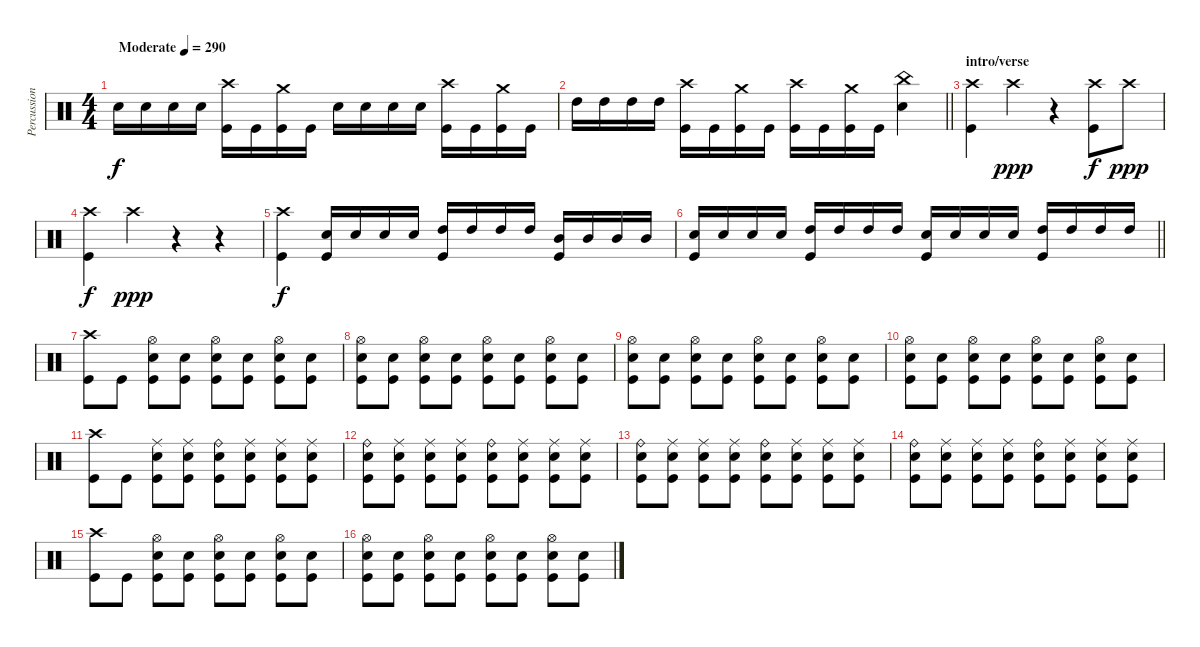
\track ("Percussion" "Percussion") {instrument percussion}
\staff {score}
\articulation defaults
\ts (4 4)
\tempo (290 "Moderate")
\clef neutral
\ks c "Electric Snare (hit)".16{dy f} "Electric Snare (hit)".16 "Electric Snare (hit)".16 "Electric Snare (hit)".16
("Crash high (hit)" "Kick (hit)").16 "Kick (hit)".16 ("Crash medium (hit)" "Kick (hit)").16 "Kick (hit)".16 "Electric Snare (hit)".16 "Electric Snare (hit)".16 "Electric Snare (hit)".16 "Electric Snare (hit)".16 ("Crash high (hit)" "Kick (hit)").16 "Kick (hit)".16 ("Crash medium (hit)" "Kick (hit)").16 "Kick (hit)".16 |
\barLineRight lightlight "High Tom (hit)".16 "High Tom (hit)".16 "High Tom (hit)".16 "High Tom (hit)".16
("Crash high (hit)" "Kick (hit)").16 "Kick (hit)".16 ("Crash medium (hit)" "Kick (hit)").16 "Kick (hit)".16 ("Crash high (hit)" "Kick (hit)").16 "Kick (hit)".16 ("Crash medium (hit)" "Kick (hit)").16 "Kick (hit)".16 ("China (hit)" "Electric Snare (hit)").4 |
\section ("" "intro/verse")
("Crash high (hit)" "Kick (hit)").4 "Crash high (hit)".4{dy ppp} r.4 ("Crash high (hit)" "Kick (hit)").8{dy f} "Crash high (hit)".8{dy ppp} |
("Crash high (hit)" "Kick (hit)").4{dy f} "Crash high (hit)".4{dy ppp} r.4 r.4 |
("Crash high (hit)" "Kick (hit)").4{dy f} ("Electric Snare (hit)" "Kick (hit)").16 "Electric Snare (hit)".16 "Electric Snare (hit)".16 "Electric Snare (hit)".16 ("High Tom (hit)" "Kick (hit)").16 "High Tom (hit)".16 "High Tom (hit)".16 "High Tom (hit)".16 ("Mid Tom (hit)" "Kick (hit)").16 "Mid Tom (hit)".16 "Mid Tom (hit)".16 "Mid Tom (hit)".16 |
\barLineRight lightlight
("Electric Snare (hit)" "Kick (hit)").16 "Electric Snare (hit)".16 "Electric Snare (hit)".16 "Electric Snare (hit)".16 ("High Tom (hit)" "Kick (hit)").16 "High Tom (hit)".16 "High Tom (hit)".16 "High Tom (hit)".16 ("Electric Snare (hit)" "Kick (hit)").16 "Electric Snare (hit)".16 "Electric Snare (hit)".16 "Electric Snare (hit)".16 ("High Tom (hit)" "Kick (hit)").16 "High Tom (hit)".16 "High Tom (hit)".16 "High Tom (hit)".16 |
("Crash high (hit)" "Kick (hit)").8 "Kick (hit)".8 ("Electric Snare (hit)" "Kick (hit)" "Hi-Hat (open)").8 ("Electric Snare (hit)" "Kick (hit)").8 ("Electric Snare (hit)" "Kick (hit)" "Hi-Hat (open)").8 ("Electric Snare (hit)" "Kick (hit)").8 ("Electric Snare (hit)" "Kick (hit)" "Hi-Hat (open)").8 ("Electric Snare (hit)" "Kick (hit)").8 |
("Electric Snare (hit)" "Kick (hit)" "Hi-Hat (open)").8 ("Electric Snare (hit)" "Kick (hit)").8 ("Electric Snare (hit)" "Kick (hit)" "Hi-Hat (open)").8 ("Electric Snare (hit)" "Kick (hit)").8 ("Electric Snare (hit)" "Kick (hit)" "Hi-Hat (open)").8 ("Electric Snare (hit)" "Kick (hit)").8 ("Electric Snare (hit)" "Kick (hit)" "Hi-Hat (open)").8 ("Electric Snare (hit)" "Kick (hit)").8 |
("Electric Snare (hit)" "Kick (hit)" "Hi-Hat (open)").8 ("Electric Snare (hit)" "Kick (hit)").8 ("Electric Snare (hit)" "Kick (hit)" "Hi-Hat (open)").8 ("Electric Snare (hit)" "Kick (hit)").8 ("Electric Snare (hit)" "Kick (hit)" "Hi-Hat (open)").8 ("Electric Snare (hit)" "Kick (hit)").8 ("Electric Snare (hit)" "Kick (hit)" "Hi-Hat (open)").8 ("Electric Snare (hit)" "Kick (hit)").8 |
("Electric Snare (hit)" "Kick (hit)" "Hi-Hat (open)").8 ("Electric Snare (hit)" "Kick (hit)").8 ("Electric Snare (hit)" "Kick (hit)" "Hi-Hat (open)").8 ("Electric Snare (hit)" "Kick (hit)").8 ("Electric Snare (hit)" "Kick (hit)" "Hi-Hat (open)").8 ("Electric Snare (hit)" "Kick (hit)").8 ("Electric Snare (hit)" "Kick (hit)" "Hi-Hat (open)").8 ("Electric Snare (hit)" "Kick (hit)").8 |
("Crash high (hit)" "Kick (hit)").8 "Kick (hit)".8 ("Electric Snare (hit)" "Kick (hit)" "Ride (middle)").8 ("Electric Snare (hit)" "Kick (hit)" "Ride (middle)").8 ("Electric Snare (hit)" "Kick (hit)" "Ride (bell)").8 ("Electric Snare (hit)" "Kick (hit)" "Ride (middle)").8 ("Electric Snare (hit)" "Kick (hit)" "Ride (middle)").8 ("Electric Snare (hit)" "Kick (hit)" "Ride (middle)").8 |
("Electric Snare (hit)" "Kick (hit)" "Ride (bell)").8 ("Electric Snare (hit)" "Kick (hit)" "Ride (middle)").8 ("Electric Snare (hit)" "Kick (hit)" "Ride (middle)").8 ("Electric Snare (hit)" "Kick (hit)" "Ride (middle)").8 ("Electric Snare (hit)" "Kick (hit)" "Ride (bell)").8 ("Electric Snare (hit)" "Kick (hit)" "Ride (middle)").8 ("Electric Snare (hit)" "Kick (hit)" "Ride (middle)").8 ("Electric Snare (hit)" "Kick (hit)" "Ride (middle)").8 |
("Electric Snare (hit)" "Kick (hit)" "Ride (bell)").8 ("Electric Snare (hit)" "Kick (hit)" "Ride (middle)").8 ("Electric Snare (hit)" "Kick (hit)" "Ride (middle)").8 ("Electric Snare (hit)" "Kick (hit)" "Ride (middle)").8 ("Electric Snare (hit)" "Kick (hit)" "Ride (bell)").8 ("Electric Snare (hit)" "Kick (hit)" "Ride (middle)").8 ("Electric Snare (hit)" "Kick (hit)" "Ride (middle)").8 ("Electric Snare (hit)" "Kick (hit)" "Ride (middle)").8 |
("Electric Snare (hit)" "Kick (hit)" "Ride (bell)").8 ("Electric Snare (hit)" "Kick (hit)" "Ride (middle)").8 ("Electric Snare (hit)" "Kick (hit)" "Ride (middle)").8 ("Electric Snare (hit)" "Kick (hit)" "Ride (middle)").8 ("Electric Snare (hit)" "Kick (hit)" "Ride (bell)").8 ("Electric Snare (hit)" "Kick (hit)" "Ride (middle)").8 ("Electric Snare (hit)" "Kick (hit)" "Ride (middle)").8 ("Electric Snare (hit)" "Kick (hit)" "Ride (middle)").8 |
("Crash high (hit)" "Kick (hit)").8 "Kick (hit)".8 ("Electric Snare (hit)" "Kick (hit)" "Hi-Hat (open)").8 ("Electric Snare (hit)" "Kick (hit)").8 ("Electric Snare (hit)" "Kick (hit)" "Hi-Hat (open)").8 ("Electric Snare (hit)" "Kick (hit)").8 ("Electric Snare (hit)" "Kick (hit)" "Hi-Hat (open)").8 ("Electric Snare (hit)" "Kick (hit)").8 |
("Electric Snare (hit)" "Kick (hit)" "Hi-Hat (open)").8 ("Electric Snare (hit)" "Kick (hit)").8 ("Electric Snare (hit)" "Kick (hit)" "Hi-Hat (open)").8 ("Electric Snare (hit)" "Kick (hit)").8 ("Electric Snare (hit)" "Kick (hit)" "Hi-Hat (open)").8 ("Electric Snare (hit)" "Kick (hit)").8 ("Electric Snare (hit)" "Kick (hit)" "Hi-Hat (open)").8 ("Electric Snare (hit)" "Kick (hit)").8
